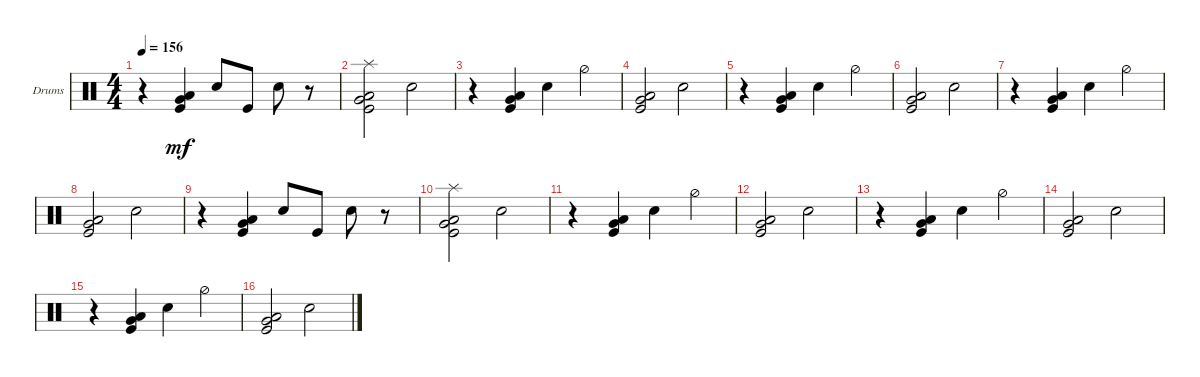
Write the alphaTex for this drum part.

\defaultSystemsLayout 4
\bracketExtendMode groupsimilarinstruments
\firstSystemTrackNameOrientation horizontal
\otherSystemsTrackNameOrientation horizontal
\track ("Drumkit" "Drums") {instrument percussion}
\staff {score}
\articulation defaults
\ts (4 4)
\tempo 156
\clef neutral
\ks c
r.4{dy mf} ("Low Tom (hit)" "Kick (hit)" "Very Low Tom (hit)").4 "Snare (hit) 2".8 "Kick (hit)".8 "Snare (hit) 2".8 r.8 |
("Low Tom (hit)" "Kick (hit)" "Very Low Tom (hit)" "Splash (hit)").2 "Snare (hit) 2".2 |
r.4 ("Low Tom (hit)" "Kick (hit)" "Very Low Tom (hit)").4 "Snare (hit) 2".4 "Hi-Hat (half)".4 |
("Low Tom (hit)" "Kick (hit)" "Very Low Tom (hit)").2 "Snare (hit) 2".2 |
r.4 ("Low Tom (hit)" "Kick (hit)" "Very Low Tom (hit)").4 "Snare (hit) 2".4 "Hi-Hat (half)".4 |
("Low Tom (hit)" "Kick (hit)" "Very Low Tom (hit)").2 "Snare (hit) 2".2 |
r.4 ("Low Tom (hit)" "Kick (hit)" "Very Low Tom (hit)").4 "Snare (hit) 2".4 "Hi-Hat (half)".4 |
("Low Tom (hit)" "Kick (hit)" "Very Low Tom (hit)").2 "Snare (hit) 2".2 |
r.4 ("Low Tom (hit)" "Kick (hit)" "Very Low Tom (hit)").4 "Snare (hit) 2".8 "Kick (hit)".8 "Snare (hit) 2".8 r.8 |
("Low Tom (hit)" "Kick (hit)" "Very Low Tom (hit)" "Splash (hit)").2 "Snare (hit) 2".2 |
r.4 ("Low Tom (hit)" "Kick (hit)" "Very Low Tom (hit)").4 "Snare (hit) 2".4 "Hi-Hat (half)".4 |
("Low Tom (hit)" "Kick (hit)" "Very Low Tom (hit)").2 "Snare (hit) 2".2 |
r.4 ("Low Tom (hit)" "Kick (hit)" "Very Low Tom (hit)").4 "Snare (hit) 2".4 "Hi-Hat (half)".4 |
("Low Tom (hit)" "Kick (hit)" "Very Low Tom (hit)").2 "Snare (hit) 2".2 |
r.4 ("Low Tom (hit)" "Kick (hit)" "Very Low Tom (hit)").4 "Snare (hit) 2".4 "Hi-Hat (half)".4 |
("Low Tom (hit)" "Kick (hit)" "Very Low Tom (hit)").2 "Snare (hit) 2".2
